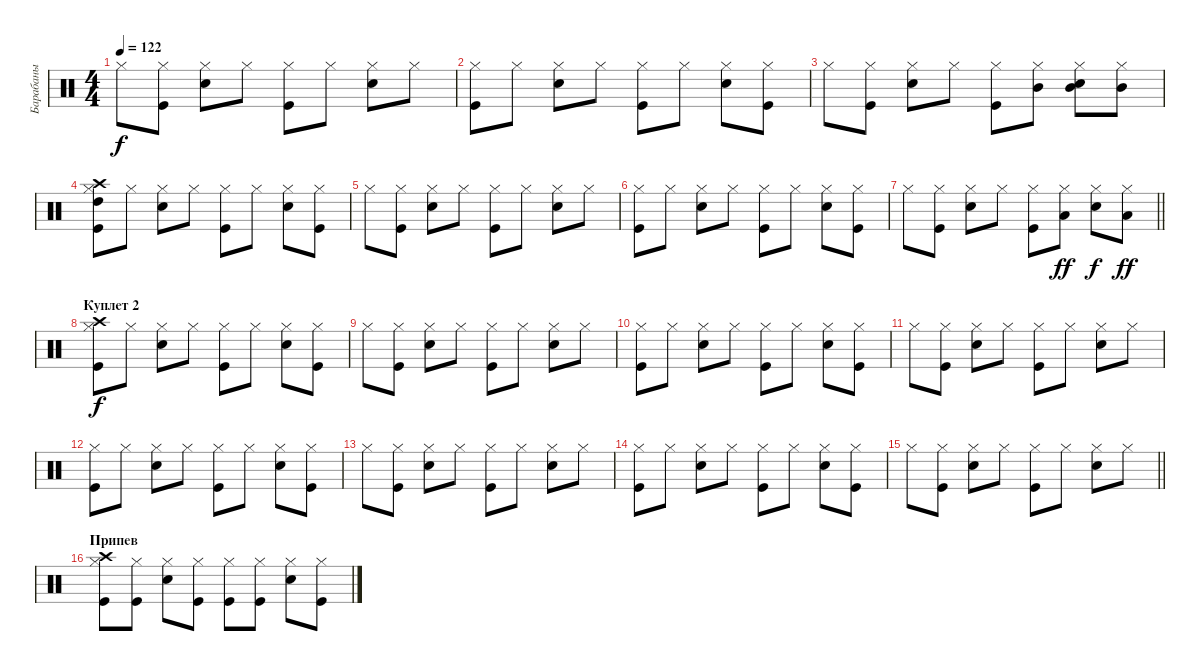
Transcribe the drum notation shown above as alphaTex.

\track ("Барабаны" "Барабаны") {instrument percussion}
\staff {score}
\articulation defaults
\ts (4 4)
\tempo 122
\clef neutral
\ks c "Hi-Hat (closed)".8{dy f}
("Kick (hit)" "Hi-Hat (closed)").8 ("Snare (hit) 2" "Hi-Hat (closed)").8 "Hi-Hat (closed)".8 ("Kick (hit)" "Hi-Hat (closed)").8 "Hi-Hat (closed)".8 ("Snare (hit) 2" "Hi-Hat (closed)").8 "Hi-Hat (closed)".8 |
("Kick (hit)" "Hi-Hat (closed)").8 "Hi-Hat (closed)".8 ("Snare (hit) 2" "Hi-Hat (closed)").8 "Hi-Hat (closed)".8 ("Kick (hit)" "Hi-Hat (closed)").8 "Hi-Hat (closed)".8 ("Snare (hit) 2" "Hi-Hat (closed)").8 ("Kick (hit)" "Hi-Hat (closed)").8 |
"Hi-Hat (closed)".8 ("Kick (hit)" "Hi-Hat (closed)").8 ("Snare (hit) 2" "Hi-Hat (closed)").8 "Hi-Hat (closed)".8 ("Kick (hit)" "Hi-Hat (closed)").8 ("Hi-Hat (closed)" "Mid Tom (hit)").8 ("Snare (hit) 2" "Hi-Hat (closed)" "Mid Tom (hit)").8 ("Hi-Hat (closed)" "Mid Tom (hit)").8 |
("Kick (hit)" "Hi-Hat (closed)" "Crash high (hit)" "High Tom (hit)").8 "Hi-Hat (closed)".8 ("Snare (hit) 2" "Hi-Hat (closed)").8 "Hi-Hat (closed)".8 ("Kick (hit)" "Hi-Hat (closed)").8 "Hi-Hat (closed)".8 ("Snare (hit) 2" "Hi-Hat (closed)").8 ("Kick (hit)" "Hi-Hat (closed)").8 |
"Hi-Hat (closed)".8 ("Kick (hit)" "Hi-Hat (closed)").8 ("Snare (hit) 2" "Hi-Hat (closed)").8 "Hi-Hat (closed)".8 ("Kick (hit)" "Hi-Hat (closed)").8 "Hi-Hat (closed)".8 ("Snare (hit) 2" "Hi-Hat (closed)").8 "Hi-Hat (closed)".8 |
("Kick (hit)" "Hi-Hat (closed)").8 "Hi-Hat (closed)".8 ("Snare (hit) 2" "Hi-Hat (closed)").8 "Hi-Hat (closed)".8 ("Kick (hit)" "Hi-Hat (closed)").8 "Hi-Hat (closed)".8 ("Snare (hit) 2" "Hi-Hat (closed)").8 ("Kick (hit)" "Hi-Hat (closed)").8 |
\barLineRight lightlight "Hi-Hat (closed)".8
("Kick (hit)" "Hi-Hat (closed)").8 ("Snare (hit) 2" "Hi-Hat (closed)").8 "Hi-Hat (closed)".8 ("Kick (hit)" "Hi-Hat (closed)").8 ("Hi-Hat (closed)" "Low Floor Tom (hit)").8{dy ff} ("Snare (hit) 2" "Hi-Hat (closed)").8{dy f} ("Hi-Hat (closed)" "Low Floor Tom (hit)").8{dy ff} |
\section ("" "Куплет 2")
("Kick (hit)" "Hi-Hat (closed)" "Crash high (hit)").8{dy f} "Hi-Hat (closed)".8 ("Snare (hit) 2" "Hi-Hat (closed)").8 "Hi-Hat (closed)".8 ("Kick (hit)" "Hi-Hat (closed)").8 "Hi-Hat (closed)".8 ("Snare (hit) 2" "Hi-Hat (closed)").8 ("Kick (hit)" "Hi-Hat (closed)").8 |
"Hi-Hat (closed)".8 ("Kick (hit)" "Hi-Hat (closed)").8 ("Snare (hit) 2" "Hi-Hat (closed)").8 "Hi-Hat (closed)".8 ("Kick (hit)" "Hi-Hat (closed)").8 "Hi-Hat (closed)".8 ("Snare (hit) 2" "Hi-Hat (closed)").8 "Hi-Hat (closed)".8 |
("Kick (hit)" "Hi-Hat (closed)").8 "Hi-Hat (closed)".8 ("Snare (hit) 2" "Hi-Hat (closed)").8 "Hi-Hat (closed)".8 ("Kick (hit)" "Hi-Hat (closed)").8 "Hi-Hat (closed)".8 ("Snare (hit) 2" "Hi-Hat (closed)").8 ("Kick (hit)" "Hi-Hat (closed)").8 |
"Hi-Hat (closed)".8 ("Kick (hit)" "Hi-Hat (closed)").8 ("Snare (hit) 2" "Hi-Hat (closed)").8 "Hi-Hat (closed)".8 ("Kick (hit)" "Hi-Hat (closed)").8 "Hi-Hat (closed)".8 ("Snare (hit) 2" "Hi-Hat (closed)").8 "Hi-Hat (closed)".8 |
("Kick (hit)" "Hi-Hat (closed)").8 "Hi-Hat (closed)".8 ("Snare (hit) 2" "Hi-Hat (closed)").8 "Hi-Hat (closed)".8 ("Kick (hit)" "Hi-Hat (closed)").8 "Hi-Hat (closed)".8 ("Snare (hit) 2" "Hi-Hat (closed)").8 ("Kick (hit)" "Hi-Hat (closed)").8 |
"Hi-Hat (closed)".8 ("Kick (hit)" "Hi-Hat (closed)").8 ("Snare (hit) 2" "Hi-Hat (closed)").8 "Hi-Hat (closed)".8 ("Kick (hit)" "Hi-Hat (closed)").8 "Hi-Hat (closed)".8 ("Snare (hit) 2" "Hi-Hat (closed)").8 "Hi-Hat (closed)".8 |
("Kick (hit)" "Hi-Hat (closed)").8 "Hi-Hat (closed)".8 ("Snare (hit) 2" "Hi-Hat (closed)").8 "Hi-Hat (closed)".8 ("Kick (hit)" "Hi-Hat (closed)").8 "Hi-Hat (closed)".8 ("Snare (hit) 2" "Hi-Hat (closed)").8 ("Kick (hit)" "Hi-Hat (closed)").8 |
\barLineRight lightlight "Hi-Hat (closed)".8
("Kick (hit)" "Hi-Hat (closed)").8 ("Snare (hit) 2" "Hi-Hat (closed)").8 "Hi-Hat (closed)".8 ("Kick (hit)" "Hi-Hat (closed)").8 "Hi-Hat (closed)".8 ("Snare (hit) 2" "Hi-Hat (closed)").8 "Hi-Hat (closed)".8 |
\section ("" "Припев")
("Kick (hit)" "Hi-Hat (closed)" "Crash high (hit)").8 ("Kick (hit)" "Hi-Hat (closed)").8 ("Snare (hit) 2" "Hi-Hat (closed)").8 ("Kick (hit)" "Hi-Hat (closed)").8 ("Kick (hit)" "Hi-Hat (closed)").8 ("Kick (hit)" "Hi-Hat (closed)").8 ("Snare (hit) 2" "Hi-Hat (closed)").8 ("Kick (hit)" "Hi-Hat (closed)").8
